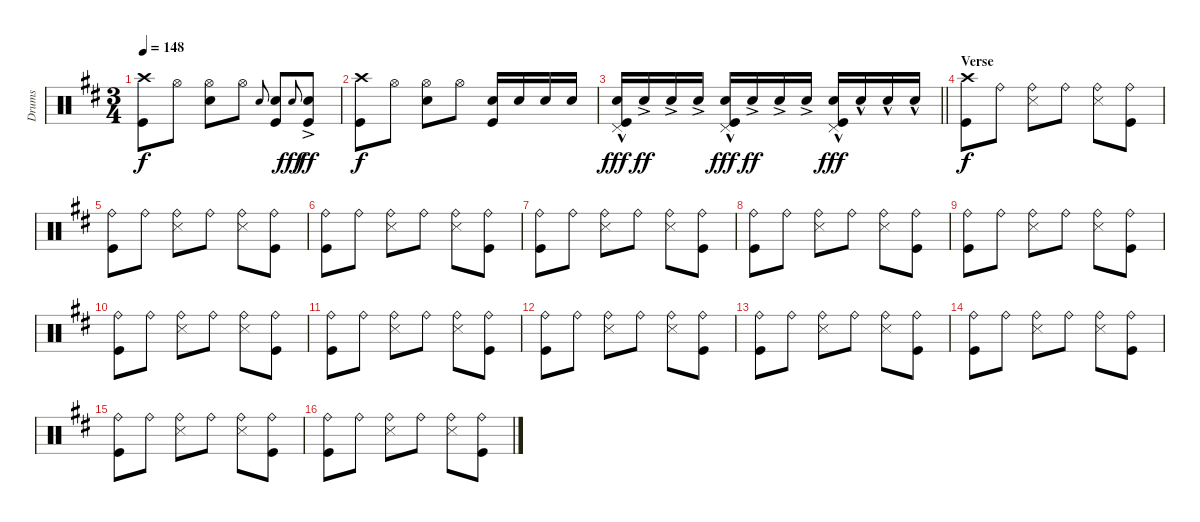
\track ("Drums" "Drums") {instrument percussion}
\staff {score}
\articulation defaults
\ts (3 4)
\tempo 148
\clef neutral
\ks bminor
("Kick (hit)" "Crash high (hit)").8{dy f} "Hi-Hat (open)".8 ("Snare (hit) 2" "Hi-Hat (open)").8 "Hi-Hat (open)".8 "Snare (hit) 2".8{gr onbeat} ("Kick (hit)" "Snare (hit) 2").8 "Snare (hit) 2".8{gr onbeat dy fff} ("Kick (hit)" "Snare (hit) 2"{ac}).8{dy ff} |
("Kick (hit)" "Crash high (hit)").8{dy f} "Hi-Hat (open)".8 ("Snare (hit) 2" "Hi-Hat (open)").8 "Hi-Hat (open)".8 ("Kick (hit)" "Snare (hit) 2").16 "Snare (hit) 2".16 "Snare (hit) 2".16 "Snare (hit) 2".16 |
\barLineRight lightlight
("Pedal Hi-Hat (hit)" "Snare (hit) 2"{hac} "Kick (hit)").16{dy fff} "Snare (hit) 2"{ac}.16{dy ff} "Snare (hit) 2"{ac}.16 "Snare (hit) 2"{ac}.16 ("Pedal Hi-Hat (hit)" "Snare (hit) 2"{hac} "Kick (hit)").16{dy fff} "Snare (hit) 2"{ac}.16{dy ff} "Snare (hit) 2"{ac}.16 "Snare (hit) 2"{ac}.16 ("Pedal Hi-Hat (hit)"{hac} "Snare (hit) 2"{hac} "Kick (hit)"{hac}).16{dy fff} "Snare (hit) 2"{hac}.16 "Snare (hit) 2"{hac}.16 "Snare (hit) 2"{hac}.16 |
\section ("" "Verse")
("Crash high (hit)" "Kick (hit)").8{dy f} "Ride (bell)".8 ("Ride (bell)" "Snare (side stick) 3").8 "Ride (bell)".8 ("Ride (bell)" "Snare (side stick) 3").8 ("Ride (bell)" "Kick (hit)").8 |
("Ride (bell)" "Kick (hit)").8 "Ride (bell)".8 ("Ride (bell)" "Snare (side stick) 3").8 "Ride (bell)".8 ("Ride (bell)" "Snare (side stick) 3").8 ("Ride (bell)" "Kick (hit)").8 |
("Ride (bell)" "Kick (hit)").8 "Ride (bell)".8 ("Ride (bell)" "Snare (side stick) 3").8 "Ride (bell)".8 ("Ride (bell)" "Snare (side stick) 3").8 ("Ride (bell)" "Kick (hit)").8 |
("Ride (bell)" "Kick (hit)").8 "Ride (bell)".8 ("Ride (bell)" "Snare (side stick) 3").8 "Ride (bell)".8 ("Ride (bell)" "Snare (side stick) 3").8 ("Ride (bell)" "Kick (hit)").8 |
("Ride (bell)" "Kick (hit)").8 "Ride (bell)".8 ("Ride (bell)" "Snare (side stick) 3").8 "Ride (bell)".8 ("Ride (bell)" "Snare (side stick) 3").8 ("Ride (bell)" "Kick (hit)").8 |
("Ride (bell)" "Kick (hit)").8 "Ride (bell)".8 ("Ride (bell)" "Snare (side stick) 3").8 "Ride (bell)".8 ("Ride (bell)" "Snare (side stick) 3").8 ("Ride (bell)" "Kick (hit)").8 |
("Ride (bell)" "Kick (hit)").8 "Ride (bell)".8 ("Ride (bell)" "Snare (side stick) 3").8 "Ride (bell)".8 ("Ride (bell)" "Snare (side stick) 3").8 ("Ride (bell)" "Kick (hit)").8 |
("Ride (bell)" "Kick (hit)").8 "Ride (bell)".8 ("Ride (bell)" "Snare (side stick) 3").8 "Ride (bell)".8 ("Ride (bell)" "Snare (side stick) 3").8 ("Ride (bell)" "Kick (hit)").8 |
("Ride (bell)" "Kick (hit)").8 "Ride (bell)".8 ("Ride (bell)" "Snare (side stick) 3").8 "Ride (bell)".8 ("Ride (bell)" "Snare (side stick) 3").8 ("Ride (bell)" "Kick (hit)").8 |
("Ride (bell)" "Kick (hit)").8 "Ride (bell)".8 ("Ride (bell)" "Snare (side stick) 3").8 "Ride (bell)".8 ("Ride (bell)" "Snare (side stick) 3").8 ("Ride (bell)" "Kick (hit)").8 |
("Ride (bell)" "Kick (hit)").8 "Ride (bell)".8 ("Ride (bell)" "Snare (side stick) 3").8 "Ride (bell)".8 ("Ride (bell)" "Snare (side stick) 3").8 ("Ride (bell)" "Kick (hit)").8 |
("Ride (bell)" "Kick (hit)").8 "Ride (bell)".8 ("Ride (bell)" "Snare (side stick) 3").8 "Ride (bell)".8 ("Ride (bell)" "Snare (side stick) 3").8 ("Ride (bell)" "Kick (hit)").8 |
("Ride (bell)" "Kick (hit)").8 "Ride (bell)".8 ("Ride (bell)" "Snare (side stick) 3").8 "Ride (bell)".8 ("Ride (bell)" "Snare (side stick) 3").8 ("Ride (bell)" "Kick (hit)").8
